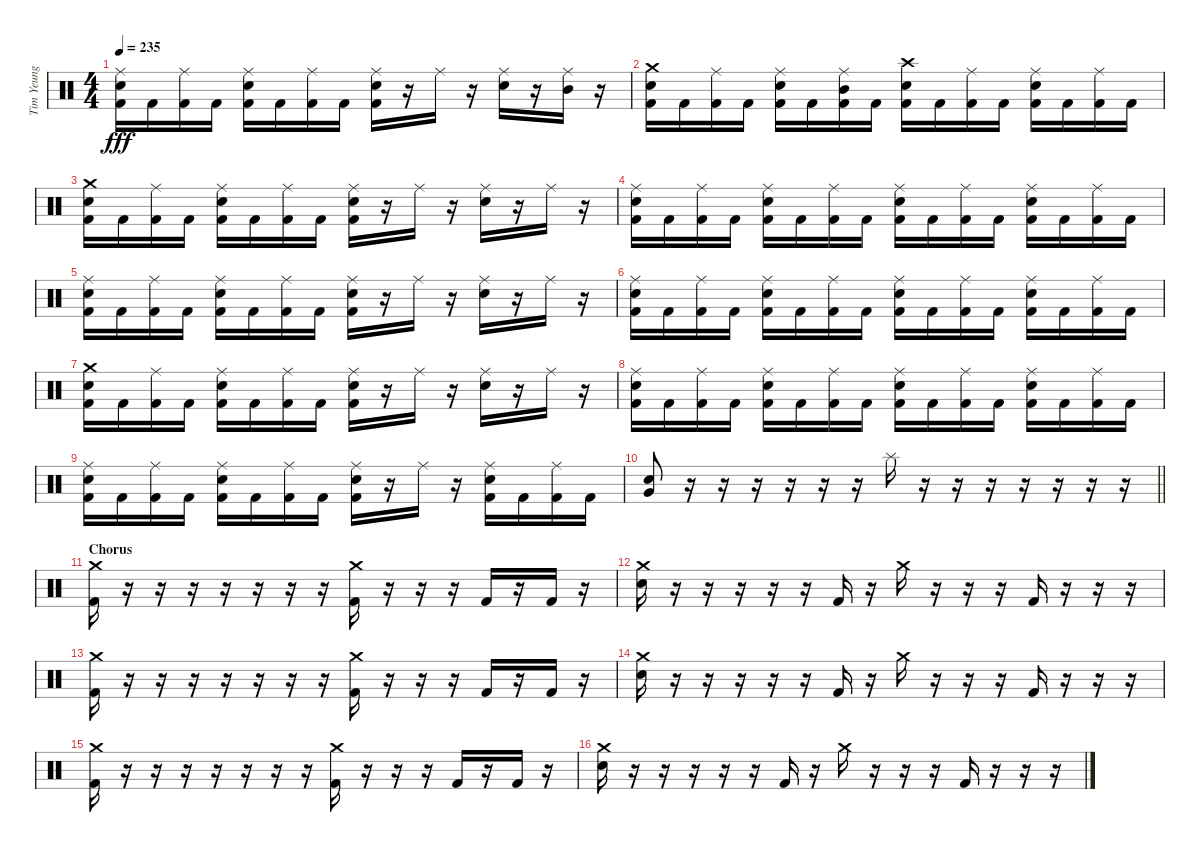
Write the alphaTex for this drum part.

\track ("Tim Yeung" "Tim Yeung") {instrument percussion}
\staff {score}
\articulation defaults
\ts (4 4)
\tempo 235
\clef neutral
\ks c
("Ride (middle)" "Electric Snare (hit)" "Kick (hit) 2").16{dy fff} "Kick (hit) 2".16 ("Ride (middle)" "Kick (hit) 2").16 "Kick (hit) 2".16 ("Ride (middle)" "Electric Snare (hit)" "Kick (hit) 2").16 "Kick (hit) 2".16 ("Ride (middle)" "Kick (hit) 2").16 "Kick (hit) 2".16 ("Ride (middle)" "Electric Snare (hit)" "Kick (hit) 2").16 r.16 "Ride (middle)".16 r.16 ("Ride (middle)" "Electric Snare (hit)").16 r.16 ("Ride (middle)" "Mid Tom (hit)").16 r.16 |
("Crash medium (hit)" "Electric Snare (hit)" "Kick (hit) 2").16 "Kick (hit) 2".16 ("Ride (middle)" "Kick (hit) 2").16 "Kick (hit) 2".16 ("Ride (middle)" "Electric Snare (hit)" "Kick (hit) 2").16 "Kick (hit) 2".16 ("Ride (middle)" "Mid Tom (hit)" "Kick (hit) 2").16 "Kick (hit) 2".16 ("Crash high (hit)" "Electric Snare (hit)" "Kick (hit) 2").16 "Kick (hit) 2".16 ("Ride (middle)" "Kick (hit) 2").16 "Kick (hit) 2".16 ("Ride (middle)" "Electric Snare (hit)" "Kick (hit) 2").16 "Kick (hit) 2".16 ("Ride (middle)" "Kick (hit) 2").16 "Kick (hit) 2".16 |
("Crash medium (hit)" "Electric Snare (hit)" "Kick (hit) 2").16 "Kick (hit) 2".16 ("Ride (middle)" "Kick (hit) 2").16 "Kick (hit) 2".16 ("Ride (middle)" "Electric Snare (hit)" "Kick (hit) 2").16 "Kick (hit) 2".16 ("Ride (middle)" "Kick (hit) 2").16 "Kick (hit) 2".16 ("Ride (middle)" "Electric Snare (hit)" "Kick (hit) 2").16 r.16 "Ride (middle)".16 r.16 ("Ride (middle)" "Electric Snare (hit)").16 r.16 "Ride (middle)".16 r.16 |
("Ride (middle)" "Electric Snare (hit)" "Kick (hit) 2").16 "Kick (hit) 2".16 ("Ride (middle)" "Kick (hit) 2").16 "Kick (hit) 2".16 ("Ride (middle)" "Electric Snare (hit)" "Kick (hit) 2").16 "Kick (hit) 2".16 ("Ride (middle)" "Kick (hit) 2").16 "Kick (hit) 2".16 ("Ride (middle)" "Electric Snare (hit)" "Kick (hit) 2").16 "Kick (hit) 2".16 ("Ride (middle)" "Kick (hit) 2").16 "Kick (hit) 2".16 ("Ride (middle)" "Electric Snare (hit)" "Kick (hit) 2").16 "Kick (hit) 2".16 ("Ride (middle)" "Kick (hit) 2").16 "Kick (hit) 2".16 |
("Ride (middle)" "Electric Snare (hit)" "Kick (hit) 2").16 "Kick (hit) 2".16 ("Ride (middle)" "Kick (hit) 2").16 "Kick (hit) 2".16 ("Ride (middle)" "Electric Snare (hit)" "Kick (hit) 2").16 "Kick (hit) 2".16 ("Ride (middle)" "Kick (hit) 2").16 "Kick (hit) 2".16 ("Ride (middle)" "Electric Snare (hit)" "Kick (hit) 2").16 r.16 "Ride (middle)".16 r.16 ("Ride (middle)" "Electric Snare (hit)").16 r.16 "Ride (middle)".16 r.16 |
("Ride (middle)" "Electric Snare (hit)" "Kick (hit) 2").16 "Kick (hit) 2".16 ("Ride (middle)" "Kick (hit) 2").16 "Kick (hit) 2".16 ("Ride (middle)" "Electric Snare (hit)" "Kick (hit) 2").16 "Kick (hit) 2".16 ("Ride (middle)" "Kick (hit) 2").16 "Kick (hit) 2".16 ("Ride (middle)" "Electric Snare (hit)" "Kick (hit) 2").16 "Kick (hit) 2".16 ("Ride (middle)" "Kick (hit) 2").16 "Kick (hit) 2".16 ("Ride (middle)" "Electric Snare (hit)" "Kick (hit) 2").16 "Kick (hit) 2".16 ("Ride (middle)" "Kick (hit) 2").16 "Kick (hit) 2".16 |
("Crash medium (hit)" "Electric Snare (hit)" "Kick (hit) 2").16 "Kick (hit) 2".16 ("Ride (middle)" "Kick (hit) 2").16 "Kick (hit) 2".16 ("Ride (middle)" "Electric Snare (hit)" "Kick (hit) 2").16 "Kick (hit) 2".16 ("Ride (middle)" "Kick (hit) 2").16 "Kick (hit) 2".16 ("Ride (middle)" "Electric Snare (hit)" "Kick (hit) 2").16 r.16 "Ride (middle)".16 r.16 ("Ride (middle)" "Electric Snare (hit)").16 r.16 "Ride (middle)".16 r.16 |
("Ride (middle)" "Electric Snare (hit)" "Kick (hit) 2").16 "Kick (hit) 2".16 ("Ride (middle)" "Kick (hit) 2").16 "Kick (hit) 2".16 ("Ride (middle)" "Electric Snare (hit)" "Kick (hit) 2").16 "Kick (hit) 2".16 ("Ride (middle)" "Kick (hit) 2").16 "Kick (hit) 2".16 ("Ride (middle)" "Electric Snare (hit)" "Kick (hit) 2").16 "Kick (hit) 2".16 ("Ride (middle)" "Kick (hit) 2").16 "Kick (hit) 2".16 ("Ride (middle)" "Electric Snare (hit)" "Kick (hit) 2").16 "Kick (hit) 2".16 ("Ride (middle)" "Kick (hit) 2").16 "Kick (hit) 2".16 |
("Ride (middle)" "Electric Snare (hit)" "Kick (hit) 2").16 "Kick (hit) 2".16 ("Ride (middle)" "Kick (hit) 2").16 "Kick (hit) 2".16 ("Ride (middle)" "Electric Snare (hit)" "Kick (hit) 2").16 "Kick (hit) 2".16 ("Ride (middle)" "Kick (hit) 2").16 "Kick (hit) 2".16 ("Ride (middle)" "Electric Snare (hit)" "Kick (hit) 2").16 r.16 "Ride (middle)".16 r.16 ("Ride (middle)" "Electric Snare (hit)" "Kick (hit) 2").16 "Kick (hit) 2".16 ("Ride (middle)" "Kick (hit) 2").16 "Kick (hit) 2".16 |
\barLineRight lightlight
("Electric Snare (hit)" "Very Low Tom (hit)").8 r.16 r.16 r.16 r.16 r.16 r.16 "Splash (hit)".16 r.16 r.16 r.16 r.16 r.16 r.16 r.16 |
\section ("" "Chorus")
("Crash medium (hit)" "Kick (hit) 2").16 r.16 r.16 r.16 r.16 r.16 r.16 r.16 ("Crash medium (hit)" "Kick (hit) 2").16 r.16 r.16 r.16 "Kick (hit) 2".16 r.16 "Kick (hit) 2".16 r.16 |
("Crash medium (hit)" "Electric Snare (hit)").16 r.16 r.16 r.16 r.16 r.16 "Kick (hit) 2".16 r.16 "Crash medium (hit)".16 r.16 r.16 r.16 "Kick (hit) 2".16 r.16 r.16 r.16 |
("Crash medium (hit)" "Kick (hit) 2").16 r.16 r.16 r.16 r.16 r.16 r.16 r.16 ("Crash medium (hit)" "Kick (hit) 2").16 r.16 r.16 r.16 "Kick (hit) 2".16 r.16 "Kick (hit) 2".16 r.16 |
("Crash medium (hit)" "Electric Snare (hit)").16 r.16 r.16 r.16 r.16 r.16 "Kick (hit) 2".16 r.16 "Crash medium (hit)".16 r.16 r.16 r.16 "Kick (hit) 2".16 r.16 r.16 r.16 |
("Crash medium (hit)" "Kick (hit) 2").16 r.16 r.16 r.16 r.16 r.16 r.16 r.16 ("Crash medium (hit)" "Kick (hit) 2").16 r.16 r.16 r.16 "Kick (hit) 2".16 r.16 "Kick (hit) 2".16 r.16 |
("Crash medium (hit)" "Electric Snare (hit)").16 r.16 r.16 r.16 r.16 r.16 "Kick (hit) 2".16 r.16 "Crash medium (hit)".16 r.16 r.16 r.16 "Kick (hit) 2".16 r.16 r.16 r.16
